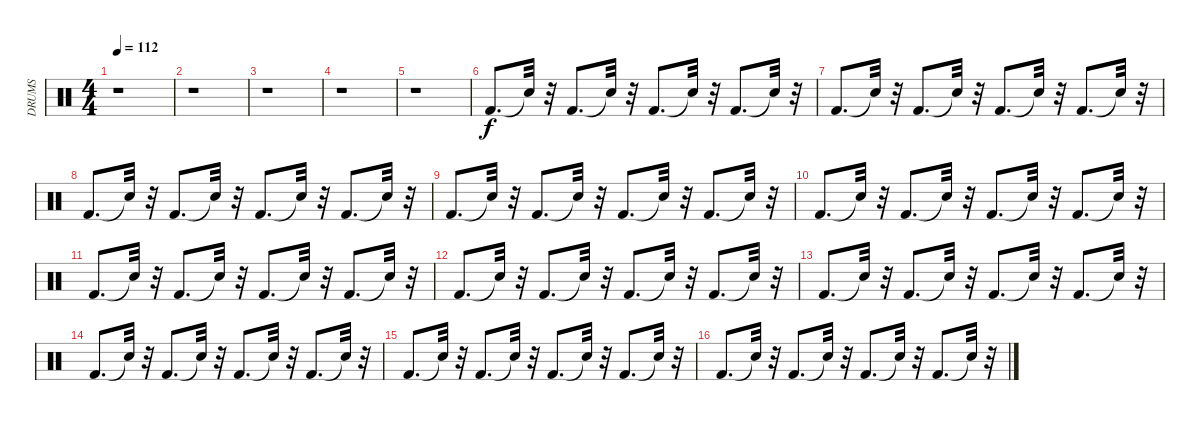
\track ("DRUMS" "DRUMS") {instrument percussion}
\staff {score}
\articulation defaults
\ts (4 4)
\tempo 112
\clef neutral
\ks c
r.1{dy f} |
r.1 |
r.1 |
r.1 |
r.1 |
"Kick (hit) 2".8{d} "Snare (hit)"{t}.32 r.32 "Kick (hit) 2".8{d} "Snare (hit)"{t}.32 r.32 "Kick (hit) 2".8{d} "Snare (hit)"{t}.32 r.32 "Kick (hit) 2".8{d} "Snare (hit)"{t}.32 r.32 |
"Kick (hit) 2".8{d} "Snare (hit)"{t}.32 r.32 "Kick (hit) 2".8{d} "Snare (hit)"{t}.32 r.32 "Kick (hit) 2".8{d} "Snare (hit)"{t}.32 r.32 "Kick (hit) 2".8{d} "Snare (hit)"{t}.32 r.32 |
"Kick (hit) 2".8{d} "Snare (hit)"{t}.32 r.32 "Kick (hit) 2".8{d} "Snare (hit)"{t}.32 r.32 "Kick (hit) 2".8{d} "Snare (hit)"{t}.32 r.32 "Kick (hit) 2".8{d} "Snare (hit)"{t}.32 r.32 |
"Kick (hit) 2".8{d} "Snare (hit)"{t}.32 r.32 "Kick (hit) 2".8{d} "Snare (hit)"{t}.32 r.32 "Kick (hit) 2".8{d} "Snare (hit)"{t}.32 r.32 "Kick (hit) 2".8{d} "Snare (hit)"{t}.32 r.32 |
"Kick (hit) 2".8{d} "Snare (hit)"{t}.32 r.32 "Kick (hit) 2".8{d} "Snare (hit)"{t}.32 r.32 "Kick (hit) 2".8{d} "Snare (hit)"{t}.32 r.32 "Kick (hit) 2".8{d} "Snare (hit)"{t}.32 r.32 |
"Kick (hit) 2".8{d} "Snare (hit)"{t}.32 r.32 "Kick (hit) 2".8{d} "Snare (hit)"{t}.32 r.32 "Kick (hit) 2".8{d} "Snare (hit)"{t}.32 r.32 "Kick (hit) 2".8{d} "Snare (hit)"{t}.32 r.32 |
"Kick (hit) 2".8{d} "Snare (hit)"{t}.32 r.32 "Kick (hit) 2".8{d} "Snare (hit)"{t}.32 r.32 "Kick (hit) 2".8{d} "Snare (hit)"{t}.32 r.32 "Kick (hit) 2".8{d} "Snare (hit)"{t}.32 r.32 |
"Kick (hit) 2".8{d} "Snare (hit)"{t}.32 r.32 "Kick (hit) 2".8{d} "Snare (hit)"{t}.32 r.32 "Kick (hit) 2".8{d} "Snare (hit)"{t}.32 r.32 "Kick (hit) 2".8{d} "Snare (hit)"{t}.32 r.32 |
"Kick (hit) 2".8{d} "Snare (hit)"{t}.32 r.32 "Kick (hit) 2".8{d} "Snare (hit)"{t}.32 r.32 "Kick (hit) 2".8{d} "Snare (hit)"{t}.32 r.32 "Kick (hit) 2".8{d} "Snare (hit)"{t}.32 r.32 |
"Kick (hit) 2".8{d} "Snare (hit)"{t}.32 r.32 "Kick (hit) 2".8{d} "Snare (hit)"{t}.32 r.32 "Kick (hit) 2".8{d} "Snare (hit)"{t}.32 r.32 "Kick (hit) 2".8{d} "Snare (hit)"{t}.32 r.32 |
"Kick (hit) 2".8{d} "Snare (hit)"{t}.32 r.32 "Kick (hit) 2".8{d} "Snare (hit)"{t}.32 r.32 "Kick (hit) 2".8{d} "Snare (hit)"{t}.32 r.32 "Kick (hit) 2".8{d} "Snare (hit)"{t}.32 r.32
